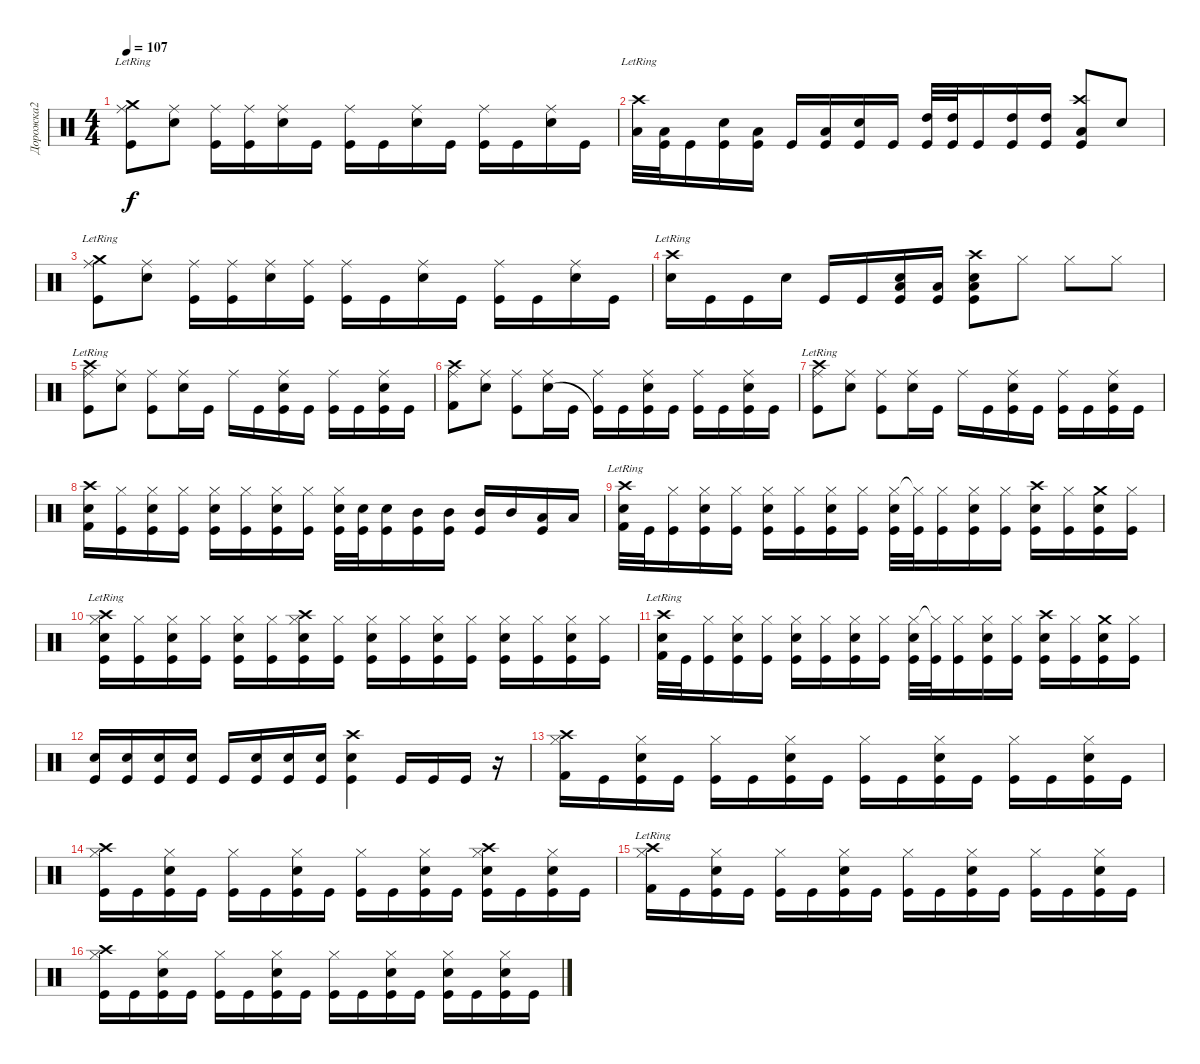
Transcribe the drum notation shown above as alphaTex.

\track ("Дорожка2" "Дорожка2") {instrument percussion}
\staff {score}
\articulation defaults
\ts (4 4)
\tempo 107
\clef neutral
\ks c
("Crash medium (hit)"{lr} "Ride (middle)" "Kick (hit)").8{dy f} ("Ride (middle)" "Electric Snare (hit)").8 ("Ride (middle)" "Kick (hit)").16 ("Ride (middle)" "Kick (hit)").16 ("Ride (middle)" "Electric Snare (hit)").16 "Kick (hit)".16 ("Ride (middle)" "Kick (hit)").16 "Kick (hit)".16 ("Ride (middle)" "Electric Snare (hit)").16 "Kick (hit)".16 ("Ride (middle)" "Kick (hit)").16 "Kick (hit)".16 ("Ride (middle)" "Electric Snare (hit)").16 "Kick (hit)".16 |
("Crash high (hit)"{lr} "Low Tom (hit)").32 ("Low Tom (hit)" "Kick (hit)").32 "Kick (hit)".16 ("Electric Snare (hit)" "Kick (hit)").16 ("Low Tom (hit)" "Kick (hit)").16 "Kick (hit)".16 ("Low Tom (hit)" "Kick (hit)").16 ("Electric Snare (hit)" "Kick (hit)").16 "Kick (hit)".16 ("High Tom (hit)" "Kick (hit)").32 ("High Tom (hit)" "Kick (hit)").32 "Kick (hit)".16 ("High Tom (hit)" "Kick (hit)").16 ("High Tom (hit)" "Kick (hit)").16 ("Crash high (hit)" "Low Tom (hit)" "Kick (hit)").8 "Electric Snare (hit)".8 |
("Crash medium (hit)"{lr} "Ride (middle)" "Kick (hit)").8 ("Ride (middle)" "Electric Snare (hit)").8 ("Ride (middle)" "Kick (hit)").16 ("Ride (middle)" "Kick (hit)").16 ("Ride (middle)" "Electric Snare (hit)").16 ("Ride (middle)" "Kick (hit)").16 ("Ride (middle)" "Kick (hit)").16 "Kick (hit)".16 ("Ride (middle)" "Electric Snare (hit)").16 "Kick (hit)".16 ("Ride (middle)" "Kick (hit)").16 "Kick (hit)".16 ("Ride (middle)" "Electric Snare (hit)").16 "Kick (hit)".16 |
("Crash high (hit)"{lr} "Electric Snare (hit)").16 "Kick (hit)".16 "Kick (hit)".16 "Electric Snare (hit)".16 "Kick (hit)".16 "Kick (hit)".16 ("Electric Snare (hit)" "Low Tom (hit)" "Kick (hit)").16 ("Low Tom (hit)" "Kick (hit)").16 ("Crash high (hit)" "Electric Snare (hit)" "Low Tom (hit)" "Kick (hit)").8 "Hi-Hat (closed)".8 "Hi-Hat (closed)".8 "Hi-Hat (closed)".8 |
("Crash high (hit)"{lr} "Ride (middle)" "Kick (hit)").8 ("Ride (middle)" "Electric Snare (hit)").8 ("Ride (middle)" "Kick (hit)").8 ("Ride (middle)" "Electric Snare (hit)").16 "Kick (hit)".16 "Ride (middle)".16 "Kick (hit)".16 ("Ride (middle)" "Electric Snare (hit)" "Kick (hit)").16 "Kick (hit)".16 ("Ride (middle)" "Kick (hit)").16 "Kick (hit)".16 ("Ride (middle)" "Electric Snare (hit)" "Kick (hit)").16 "Kick (hit)".16 |
("Crash high (hit)" "Ride (middle)" "Kick (hit) 2").8 ("Ride (middle)" "Electric Snare (hit)").8 ("Ride (middle)" "Kick (hit)").8 ("Ride (middle)" "Electric Snare (hit)").16 "Kick (hit)".16 ("Ride (middle)" "Kick (hit)"{t}).16 "Kick (hit)".16 ("Ride (middle)" "Electric Snare (hit)" "Kick (hit)").16 "Kick (hit)".16 ("Ride (middle)" "Kick (hit)").16 "Kick (hit)".16 ("Ride (middle)" "Electric Snare (hit)" "Kick (hit)").16 "Kick (hit)".16 |
("Crash high (hit)"{lr} "Ride (middle)" "Kick (hit)").8 ("Ride (middle)" "Electric Snare (hit)").8 ("Ride (middle)" "Kick (hit)").8 ("Ride (middle)" "Electric Snare (hit)").16 "Kick (hit)".16 "Ride (middle)".16 "Kick (hit)".16 ("Ride (middle)" "Electric Snare (hit)" "Kick (hit)").16 "Kick (hit)".16 ("Ride (middle)" "Kick (hit)").16 "Kick (hit)".16 ("Ride (middle)" "Electric Snare (hit)" "Kick (hit)").16 "Kick (hit)".16 |
("Crash high (hit)" "Electric Snare (hit)" "Kick (hit) 2").16 ("Hi-Hat (closed)" "Kick (hit)").16 ("Hi-Hat (closed)" "Electric Snare (hit)" "Kick (hit)").16 ("Hi-Hat (closed)" "Kick (hit)").16 ("Hi-Hat (closed)" "Electric Snare (hit)" "Kick (hit)").16 ("Hi-Hat (closed)" "Kick (hit)").16 ("Hi-Hat (closed)" "Electric Snare (hit)" "Kick (hit)").16 ("Hi-Hat (closed)" "Kick (hit)").16 ("Hi-Hat (closed)" "Electric Snare (hit)" "Kick (hit)").32 ("Electric Snare (hit)" "Kick (hit)").32 ("Electric Snare (hit)" "Kick (hit)").16 ("Mid Tom (hit)" "Kick (hit)").16 ("Mid Tom (hit)" "Kick (hit)").16 ("Mid Tom (hit)" "Kick (hit)").16 "Mid Tom (hit)".16 ("Low Tom (hit)" "Kick (hit)").16 "Low Tom (hit)".16 |
("Crash high (hit)"{lr} "Electric Snare (hit)" "Kick (hit) 2").32 "Kick (hit)".32 ("Hi-Hat (closed)" "Kick (hit)").16 ("Hi-Hat (closed)" "Electric Snare (hit)" "Kick (hit)").16 ("Hi-Hat (closed)" "Kick (hit)").16 ("Hi-Hat (closed)" "Electric Snare (hit)" "Kick (hit)").16 ("Hi-Hat (closed)" "Kick (hit)").16 ("Hi-Hat (closed)" "Electric Snare (hit)" "Kick (hit)").16 ("Hi-Hat (closed)" "Kick (hit)").16 ("Hi-Hat (closed)" "Electric Snare (hit)" "Kick (hit)").32 ("Hi-Hat (closed)"{t} "Kick (hit)").32 ("Hi-Hat (closed)" "Kick (hit)").16 ("Hi-Hat (closed)" "Electric Snare (hit)" "Kick (hit)").16 ("Hi-Hat (closed)" "Kick (hit)").16 ("Crash high (hit)" "Electric Snare (hit)" "Kick (hit)").16 ("Hi-Hat (closed)" "Kick (hit)").16 ("Crash medium (hit)" "Electric Snare (hit)" "Kick (hit)").16 ("Hi-Hat (closed)" "Kick (hit)").16 |
("Crash high (hit)"{lr} "Hi-Hat (closed)" "Electric Snare (hit)" "Kick (hit)").16 ("Hi-Hat (closed)" "Kick (hit)").16 ("Hi-Hat (closed)" "Electric Snare (hit)" "Kick (hit)").16 ("Hi-Hat (closed)" "Kick (hit)").16 ("Hi-Hat (closed)" "Electric Snare (hit)" "Kick (hit)").16 ("Hi-Hat (closed)" "Kick (hit)").16 ("Crash high (hit)" "Hi-Hat (closed)" "Electric Snare (hit)" "Kick (hit)").16 ("Hi-Hat (closed)" "Kick (hit)").16 ("Hi-Hat (closed)" "Electric Snare (hit)" "Kick (hit)").16 ("Hi-Hat (closed)" "Kick (hit)").16 ("Hi-Hat (closed)" "Electric Snare (hit)" "Kick (hit)").16 ("Hi-Hat (closed)" "Kick (hit)").16 ("Hi-Hat (closed)" "Electric Snare (hit)" "Kick (hit)").16 ("Hi-Hat (closed)" "Kick (hit)").16 ("Hi-Hat (closed)" "Electric Snare (hit)" "Kick (hit)").16 ("Hi-Hat (closed)" "Kick (hit)").16 |
("Crash high (hit)"{lr} "Electric Snare (hit)" "Kick (hit) 2").32 "Kick (hit)".32 ("Hi-Hat (closed)" "Kick (hit)").16 ("Hi-Hat (closed)" "Electric Snare (hit)" "Kick (hit)").16 ("Hi-Hat (closed)" "Kick (hit)").16 ("Hi-Hat (closed)" "Electric Snare (hit)" "Kick (hit)").16 ("Hi-Hat (closed)" "Kick (hit)").16 ("Hi-Hat (closed)" "Electric Snare (hit)" "Kick (hit)").16 ("Hi-Hat (closed)" "Kick (hit)").16 ("Hi-Hat (closed)" "Electric Snare (hit)" "Kick (hit)").32 ("Hi-Hat (closed)"{t} "Kick (hit)").32 ("Hi-Hat (closed)" "Kick (hit)").16 ("Hi-Hat (closed)" "Electric Snare (hit)" "Kick (hit)").16 ("Hi-Hat (closed)" "Kick (hit)").16 ("Crash high (hit)" "Electric Snare (hit)" "Kick (hit)").16 ("Hi-Hat (closed)" "Kick (hit)").16 ("Crash medium (hit)" "Electric Snare (hit)" "Kick (hit)").16 ("Hi-Hat (closed)" "Kick (hit)").16 |
("Electric Snare (hit)" "Kick (hit)").16 ("Electric Snare (hit)" "Kick (hit)").16 ("Electric Snare (hit)" "Kick (hit)").16 ("Electric Snare (hit)" "Kick (hit)").16 "Kick (hit)".16 ("Electric Snare (hit)" "Kick (hit)").16 ("Electric Snare (hit)" "Kick (hit)").16 ("Electric Snare (hit)" "Kick (hit)").16 ("Crash high (hit)" "Electric Snare (hit)" "Kick (hit)").4 "Kick (hit)".16 "Kick (hit)".16 "Kick (hit)".16 r.16 |
("Crash high (hit)" "Hi-Hat (closed)" "Kick (hit) 2").16 "Kick (hit)".16 ("Hi-Hat (closed)" "Electric Snare (hit)" "Kick (hit)").16 "Kick (hit)".16 ("Hi-Hat (closed)" "Kick (hit)").16 "Kick (hit)".16 ("Hi-Hat (closed)" "Electric Snare (hit)" "Kick (hit)").16 "Kick (hit)".16 ("Hi-Hat (closed)" "Kick (hit)").16 "Kick (hit)".16 ("Hi-Hat (closed)" "Electric Snare (hit)" "Kick (hit)").16 "Kick (hit)".16 ("Hi-Hat (closed)" "Kick (hit)").16 "Kick (hit)".16 ("Hi-Hat (closed)" "Electric Snare (hit)" "Kick (hit)").16 "Kick (hit)".16 |
("Crash high (hit)" "Hi-Hat (closed)" "Kick (hit)").16 "Kick (hit)".16 ("Hi-Hat (closed)" "Electric Snare (hit)" "Kick (hit)").16 "Kick (hit)".16 ("Hi-Hat (closed)" "Kick (hit)").16 "Kick (hit)".16 ("Hi-Hat (closed)" "Electric Snare (hit)" "Kick (hit)").16 "Kick (hit)".16 ("Hi-Hat (closed)" "Kick (hit)").16 "Kick (hit)".16 ("Hi-Hat (closed)" "Electric Snare (hit)" "Kick (hit)").16 "Kick (hit)".16 ("Crash high (hit)" "Hi-Hat (closed)" "Electric Snare (hit)" "Kick (hit)").16 "Kick (hit)".16 ("Hi-Hat (closed)" "Electric Snare (hit)" "Kick (hit)").16 "Kick (hit)".16 |
("Crash high (hit)"{lr} "Hi-Hat (closed)" "Kick (hit) 2").16 "Kick (hit)".16 ("Hi-Hat (closed)" "Electric Snare (hit)" "Kick (hit)").16 "Kick (hit)".16 ("Hi-Hat (closed)" "Kick (hit)").16 "Kick (hit)".16 ("Hi-Hat (closed)" "Electric Snare (hit)" "Kick (hit)").16 "Kick (hit)".16 ("Hi-Hat (closed)" "Kick (hit)").16 "Kick (hit)".16 ("Hi-Hat (closed)" "Electric Snare (hit)" "Kick (hit)").16 "Kick (hit)".16 ("Hi-Hat (closed)" "Kick (hit)").16 "Kick (hit)".16 ("Hi-Hat (closed)" "Electric Snare (hit)" "Kick (hit)").16 "Kick (hit)".16 |
("Crash high (hit)" "Hi-Hat (closed)" "Kick (hit)").16 "Kick (hit)".16 ("Hi-Hat (closed)" "Electric Snare (hit)" "Kick (hit)").16 "Kick (hit)".16 ("Hi-Hat (closed)" "Kick (hit)").16 "Kick (hit)".16 ("Hi-Hat (closed)" "Electric Snare (hit)" "Kick (hit)").16 "Kick (hit)".16 ("Hi-Hat (closed)" "Kick (hit)").16 "Kick (hit)".16 ("Hi-Hat (closed)" "Electric Snare (hit)" "Kick (hit)").16 "Kick (hit)".16 ("Hi-Hat (closed)" "Electric Snare (hit)" "Kick (hit)").16 "Kick (hit)".16 ("Hi-Hat (closed)" "Electric Snare (hit)" "Kick (hit)").16 "Kick (hit)".16
